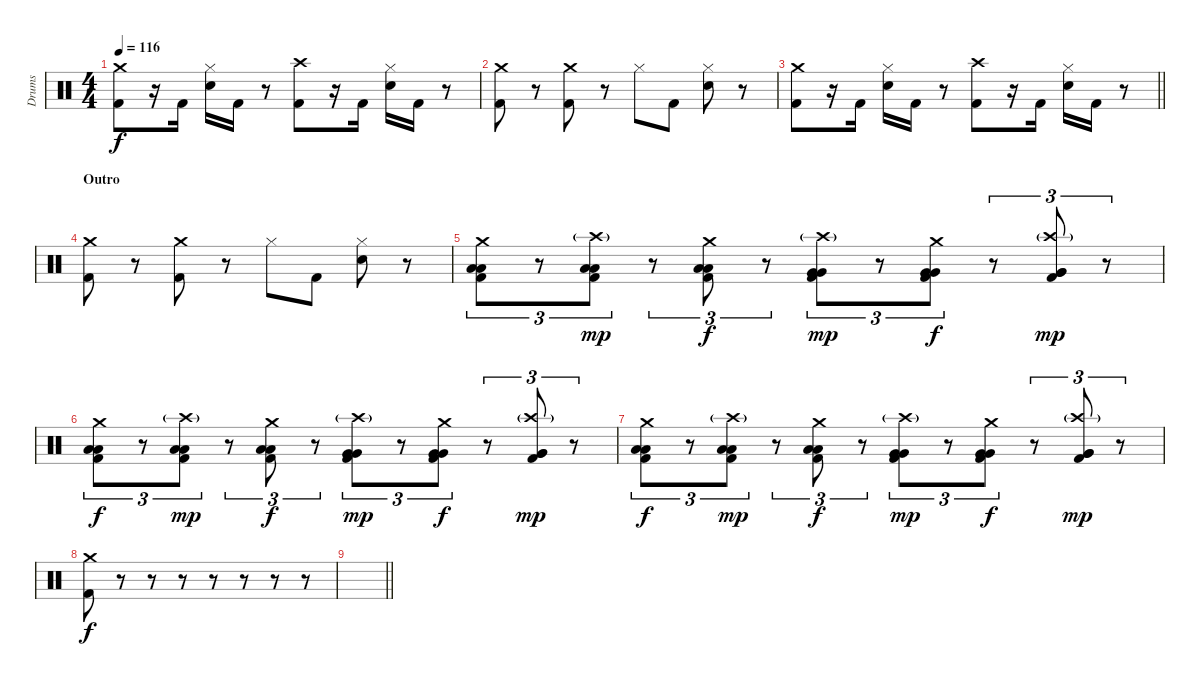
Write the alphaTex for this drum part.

\track ("Drums" "Drums") {instrument percussion}
\staff {score}
\articulation defaults
\ts (4 4)
\tempo 116
\clef neutral
\ks c
("Crash medium (hit)" "Kick (hit) 2").8{dy f} r.16 "Kick (hit) 2".16 ("Hi-Hat (closed)" "Snare (hit) 2").16 "Kick (hit) 2".16 r.8 ("Crash high (hit)" "Kick (hit) 2").8 r.16 "Kick (hit) 2".16 ("Hi-Hat (closed)" "Snare (hit) 2").16 "Kick (hit) 2".16 r.8 |
("Crash medium (hit)" "Kick (hit) 2").8 r.8 ("Crash medium (hit)" "Kick (hit) 2").8 r.8 "Hi-Hat (closed)".8 "Kick (hit) 2".8 ("Hi-Hat (closed)" "Snare (hit) 2").8 r.8 |
\barLineRight lightlight
("Crash medium (hit)" "Kick (hit) 2").8 r.16 "Kick (hit) 2".16 ("Hi-Hat (closed)" "Snare (hit) 2").16 "Kick (hit) 2".16 r.8 ("Crash high (hit)" "Kick (hit) 2").8 r.16 "Kick (hit) 2".16 ("Hi-Hat (closed)" "Snare (hit) 2").16 "Kick (hit) 2".16 r.8 |
\section ("" "Outro")
("Crash medium (hit)" "Kick (hit) 2").8 r.8 ("Crash medium (hit)" "Kick (hit) 2").8 r.8 "Hi-Hat (closed)".8 "Kick (hit) 2".8 ("Hi-Hat (closed)" "Snare (hit) 2").8 r.8 |
("Crash medium (hit)" "Low Tom (hit)" "Low Tom (hit)" "Kick (hit) 2").8{tu (3 2)} r.8{tu (3 2)} ("Crash high (hit)"{g} "Low Tom (hit)" "Low Tom (hit)" "Kick (hit) 2").8{tu (3 2) dy mp} r.8{tu (3 2)} ("Crash medium (hit)" "Low Tom (hit)" "Low Tom (hit)" "Kick (hit) 2").8{tu (3 2) dy f} r.8{tu (3 2)} ("Crash high (hit)"{g} "Very Low Tom (hit)" "Very Low Tom (hit)" "Kick (hit) 2").8{tu (3 2) dy mp} r.8{tu (3 2)} ("Crash medium (hit)" "Very Low Tom (hit)" "Very Low Tom (hit)" "Kick (hit) 2").8{tu (3 2) dy f} r.8{tu (3 2)} ("Crash high (hit)"{g} "Very Low Tom (hit)" "Very Low Tom (hit)" "Kick (hit) 2").8{tu (3 2) dy mp} r.8{tu (3 2)} |
("Crash medium (hit)" "Low Tom (hit)" "Low Tom (hit)" "Kick (hit) 2").8{tu (3 2) dy f} r.8{tu (3 2)} ("Crash high (hit)"{g} "Low Tom (hit)" "Low Tom (hit)" "Kick (hit) 2").8{tu (3 2) dy mp} r.8{tu (3 2)} ("Crash medium (hit)" "Low Tom (hit)" "Low Tom (hit)" "Kick (hit) 2").8{tu (3 2) dy f} r.8{tu (3 2)} ("Crash high (hit)"{g} "Very Low Tom (hit)" "Very Low Tom (hit)" "Kick (hit) 2").8{tu (3 2) dy mp} r.8{tu (3 2)} ("Crash medium (hit)" "Very Low Tom (hit)" "Very Low Tom (hit)" "Kick (hit) 2").8{tu (3 2) dy f} r.8{tu (3 2)} ("Crash high (hit)"{g} "Very Low Tom (hit)" "Very Low Tom (hit)" "Kick (hit) 2").8{tu (3 2) dy mp} r.8{tu (3 2)} |
("Crash medium (hit)" "Low Tom (hit)" "Low Tom (hit)" "Kick (hit) 2").8{tu (3 2) dy f} r.8{tu (3 2)} ("Crash high (hit)"{g} "Low Tom (hit)" "Low Tom (hit)" "Kick (hit) 2").8{tu (3 2) dy mp} r.8{tu (3 2)} ("Crash medium (hit)" "Low Tom (hit)" "Low Tom (hit)" "Kick (hit) 2").8{tu (3 2) dy f} r.8{tu (3 2)} ("Crash high (hit)"{g} "Very Low Tom (hit)" "Very Low Tom (hit)" "Kick (hit) 2").8{tu (3 2) dy mp} r.8{tu (3 2)} ("Crash medium (hit)" "Very Low Tom (hit)" "Very Low Tom (hit)" "Kick (hit) 2").8{tu (3 2) dy f} r.8{tu (3 2)} ("Crash high (hit)"{g} "Very Low Tom (hit)" "Very Low Tom (hit)" "Kick (hit) 2").8{tu (3 2) dy mp} r.8{tu (3 2)} |
("Crash medium (hit)" "Kick (hit) 2").8{dy f} r.8 r.8 r.8 r.8 r.8 r.8 r.8 |
\barLineRight lightlight
